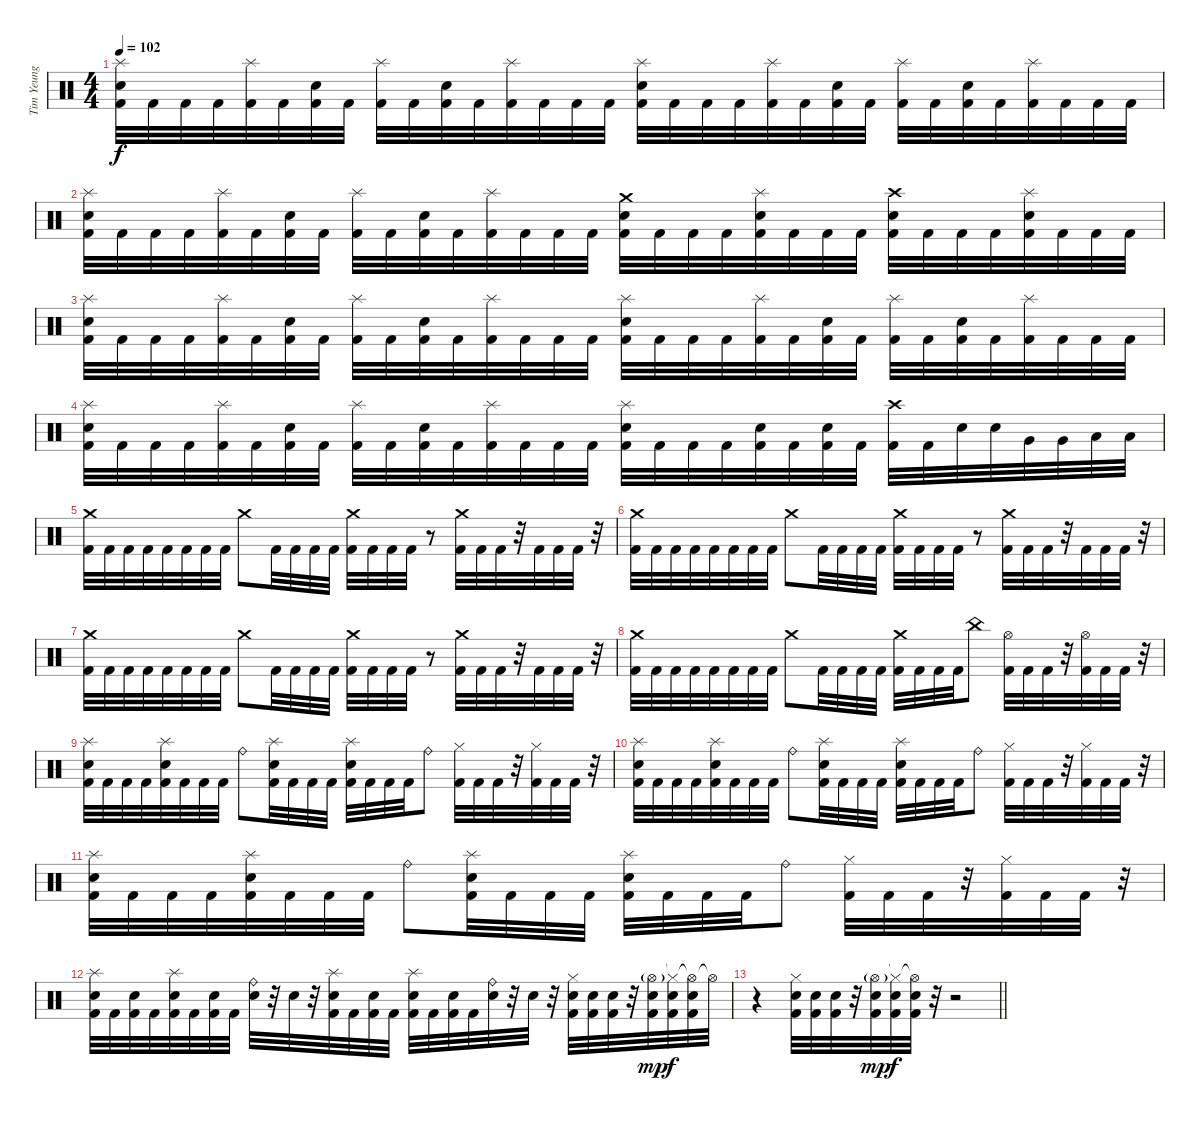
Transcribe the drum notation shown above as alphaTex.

\track ("Tim Yeung" "Tim Yeung") {instrument percussion}
\staff {score}
\articulation defaults
\ts (4 4)
\tempo 102
\clef neutral
\ks c
("Splash (hit)" "Electric Snare (hit)" "Kick (hit) 2").32{dy f} "Kick (hit) 2".32 "Kick (hit) 2".32 "Kick (hit) 2".32 ("Splash (hit)" "Kick (hit) 2").32 "Kick (hit) 2".32 ("Electric Snare (hit)" "Kick (hit) 2").32 "Kick (hit) 2".32 ("Splash (hit)" "Kick (hit) 2").32 "Kick (hit) 2".32 ("Electric Snare (hit)" "Kick (hit) 2").32 "Kick (hit) 2".32 ("Splash (hit)" "Kick (hit) 2").32 "Kick (hit) 2".32 "Kick (hit) 2".32 "Kick (hit) 2".32 ("Splash (hit)" "Electric Snare (hit)" "Kick (hit) 2").32 "Kick (hit) 2".32 "Kick (hit) 2".32 "Kick (hit) 2".32 ("Splash (hit)" "Kick (hit) 2").32 "Kick (hit) 2".32 ("Electric Snare (hit)" "Kick (hit) 2").32 "Kick (hit) 2".32 ("Splash (hit)" "Kick (hit) 2").32 "Kick (hit) 2".32 ("Electric Snare (hit)" "Kick (hit) 2").32 "Kick (hit) 2".32 ("Splash (hit)" "Kick (hit) 2").32 "Kick (hit) 2".32 "Kick (hit) 2".32 "Kick (hit) 2".32 |
("Splash (hit)" "Electric Snare (hit)" "Kick (hit) 2").32 "Kick (hit) 2".32 "Kick (hit) 2".32 "Kick (hit) 2".32 ("Splash (hit)" "Kick (hit) 2").32 "Kick (hit) 2".32 ("Electric Snare (hit)" "Kick (hit) 2").32 "Kick (hit) 2".32 ("Splash (hit)" "Kick (hit) 2").32 "Kick (hit) 2".32 ("Electric Snare (hit)" "Kick (hit) 2").32 "Kick (hit) 2".32 ("Splash (hit)" "Kick (hit) 2").32 "Kick (hit) 2".32 "Kick (hit) 2".32 "Kick (hit) 2".32 ("Crash medium (hit)" "Electric Snare (hit)" "Kick (hit) 2").32 "Kick (hit) 2".32 "Kick (hit) 2".32 "Kick (hit) 2".32 ("Splash (hit)" "Electric Snare (hit)" "Kick (hit) 2").32 "Kick (hit) 2".32 "Kick (hit) 2".32 "Kick (hit) 2".32 ("Crash high (hit)" "Electric Snare (hit)" "Kick (hit) 2").32 "Kick (hit) 2".32 "Kick (hit) 2".32 "Kick (hit) 2".32 ("Splash (hit)" "Electric Snare (hit)" "Kick (hit) 2").32 "Kick (hit) 2".32 "Kick (hit) 2".32 "Kick (hit) 2".32 |
("Splash (hit)" "Electric Snare (hit)" "Kick (hit) 2").32 "Kick (hit) 2".32 "Kick (hit) 2".32 "Kick (hit) 2".32 ("Splash (hit)" "Kick (hit) 2").32 "Kick (hit) 2".32 ("Electric Snare (hit)" "Kick (hit) 2").32 "Kick (hit) 2".32 ("Splash (hit)" "Kick (hit) 2").32 "Kick (hit) 2".32 ("Electric Snare (hit)" "Kick (hit) 2").32 "Kick (hit) 2".32 ("Splash (hit)" "Kick (hit) 2").32 "Kick (hit) 2".32 "Kick (hit) 2".32 "Kick (hit) 2".32 ("Splash (hit)" "Electric Snare (hit)" "Kick (hit) 2").32 "Kick (hit) 2".32 "Kick (hit) 2".32 "Kick (hit) 2".32 ("Splash (hit)" "Kick (hit) 2").32 "Kick (hit) 2".32 ("Electric Snare (hit)" "Kick (hit) 2").32 "Kick (hit) 2".32 ("Splash (hit)" "Kick (hit) 2").32 "Kick (hit) 2".32 ("Electric Snare (hit)" "Kick (hit) 2").32 "Kick (hit) 2".32 ("Splash (hit)" "Kick (hit) 2").32 "Kick (hit) 2".32 "Kick (hit) 2".32 "Kick (hit) 2".32 |
("Splash (hit)" "Electric Snare (hit)" "Kick (hit) 2").32 "Kick (hit) 2".32 "Kick (hit) 2".32 "Kick (hit) 2".32 ("Splash (hit)" "Kick (hit) 2").32 "Kick (hit) 2".32 ("Electric Snare (hit)" "Kick (hit) 2").32 "Kick (hit) 2".32 ("Splash (hit)" "Kick (hit) 2").32 "Kick (hit) 2".32 ("Electric Snare (hit)" "Kick (hit) 2").32 "Kick (hit) 2".32 ("Splash (hit)" "Kick (hit) 2").32 "Kick (hit) 2".32 "Kick (hit) 2".32 "Kick (hit) 2".32 ("Splash (hit)" "Electric Snare (hit)" "Kick (hit) 2").32 "Kick (hit) 2".32 "Kick (hit) 2".32 "Kick (hit) 2".32 ("Electric Snare (hit)" "Kick (hit) 2").32 "Kick (hit) 2".32 ("Electric Snare (hit)" "Kick (hit) 2").32 "Kick (hit) 2".32 ("Crash high (hit)" "Kick (hit) 2").32 "Kick (hit) 2".32 "Electric Snare (hit)".32 "Electric Snare (hit)".32 "Very Low Tom (hit)".32 "Very Low Tom (hit)".32 "Low Floor Tom (hit)".32 "Low Floor Tom (hit)".32 |
("Crash medium (hit)" "Kick (hit) 2").32 "Kick (hit) 2".32 "Kick (hit) 2".32 "Kick (hit) 2".32 "Kick (hit) 2".32 "Kick (hit) 2".32 "Kick (hit) 2".32 "Kick (hit) 2".32 "Crash medium (hit)".8 "Kick (hit) 2".32 "Kick (hit) 2".32 "Kick (hit) 2".32 "Kick (hit) 2".32 ("Crash medium (hit)" "Kick (hit) 2").32 "Kick (hit) 2".32 "Kick (hit) 2".32 "Kick (hit) 2".32 r.8 ("Crash medium (hit)" "Kick (hit) 2").32 "Kick (hit) 2".32 "Kick (hit) 2".32 r.32 "Kick (hit) 2".32 "Kick (hit) 2".32 "Kick (hit) 2".32 r.32 |
("Crash medium (hit)" "Kick (hit) 2").32 "Kick (hit) 2".32 "Kick (hit) 2".32 "Kick (hit) 2".32 "Kick (hit) 2".32 "Kick (hit) 2".32 "Kick (hit) 2".32 "Kick (hit) 2".32 "Crash medium (hit)".8 "Kick (hit) 2".32 "Kick (hit) 2".32 "Kick (hit) 2".32 "Kick (hit) 2".32 ("Crash medium (hit)" "Kick (hit) 2").32 "Kick (hit) 2".32 "Kick (hit) 2".32 "Kick (hit) 2".32 r.8 ("Crash medium (hit)" "Kick (hit) 2").32 "Kick (hit) 2".32 "Kick (hit) 2".32 r.32 "Kick (hit) 2".32 "Kick (hit) 2".32 "Kick (hit) 2".32 r.32 |
("Crash medium (hit)" "Kick (hit) 2").32 "Kick (hit) 2".32 "Kick (hit) 2".32 "Kick (hit) 2".32 "Kick (hit) 2".32 "Kick (hit) 2".32 "Kick (hit) 2".32 "Kick (hit) 2".32 "Crash medium (hit)".8 "Kick (hit) 2".32 "Kick (hit) 2".32 "Kick (hit) 2".32 "Kick (hit) 2".32 ("Crash medium (hit)" "Kick (hit) 2").32 "Kick (hit) 2".32 "Kick (hit) 2".32 "Kick (hit) 2".32 r.8 ("Crash medium (hit)" "Kick (hit) 2").32 "Kick (hit) 2".32 "Kick (hit) 2".32 r.32 "Kick (hit) 2".32 "Kick (hit) 2".32 "Kick (hit) 2".32 r.32 |
("Crash medium (hit)" "Kick (hit) 2").32 "Kick (hit) 2".32 "Kick (hit) 2".32 "Kick (hit) 2".32 "Kick (hit) 2".32 "Kick (hit) 2".32 "Kick (hit) 2".32 "Kick (hit) 2".32 "Crash medium (hit)".8 "Kick (hit) 2".32 "Kick (hit) 2".32 "Kick (hit) 2".32 "Kick (hit) 2".32 ("Crash medium (hit)" "Kick (hit) 2").32 "Kick (hit) 2".32 "Kick (hit) 2".32 "Kick (hit) 2".32 "China (hit)".8 ("Hi-Hat (open)" "Kick (hit) 2").32 "Kick (hit) 2".32 "Kick (hit) 2".32 r.32 ("Hi-Hat (open)" "Kick (hit) 2").32 "Kick (hit) 2".32 "Kick (hit) 2".32 r.32 |
("Splash (hit)" "Electric Snare (hit)" "Kick (hit) 2").32 "Kick (hit) 2".32 "Kick (hit) 2".32 "Kick (hit) 2".32 ("Splash (hit)" "Electric Snare (hit)" "Kick (hit) 2").32 "Kick (hit) 2".32 "Kick (hit) 2".32 "Kick (hit) 2".32 "Ride (bell)".8 ("Splash (hit)" "Electric Snare (hit)" "Kick (hit) 2").32 "Kick (hit) 2".32 "Kick (hit) 2".32 "Kick (hit) 2".32 ("Splash (hit)" "Electric Snare (hit)" "Kick (hit) 2").32 "Kick (hit) 2".32 "Kick (hit) 2".32 "Kick (hit) 2".32 "Ride (bell)".8 ("Hi-Hat (closed)" "Kick (hit) 2").32 "Kick (hit) 2".32 "Kick (hit) 2".32 r.32 ("Hi-Hat (closed)" "Kick (hit) 2").32 "Kick (hit) 2".32 "Kick (hit) 2".32 r.32 |
("Splash (hit)" "Electric Snare (hit)" "Kick (hit) 2").32 "Kick (hit) 2".32 "Kick (hit) 2".32 "Kick (hit) 2".32 ("Splash (hit)" "Electric Snare (hit)" "Kick (hit) 2").32 "Kick (hit) 2".32 "Kick (hit) 2".32 "Kick (hit) 2".32 "Ride (bell)".8 ("Splash (hit)" "Electric Snare (hit)" "Kick (hit) 2").32 "Kick (hit) 2".32 "Kick (hit) 2".32 "Kick (hit) 2".32 ("Splash (hit)" "Electric Snare (hit)" "Kick (hit) 2").32 "Kick (hit) 2".32 "Kick (hit) 2".32 "Kick (hit) 2".32 "Ride (bell)".8 ("Hi-Hat (closed)" "Kick (hit) 2").32 "Kick (hit) 2".32 "Kick (hit) 2".32 r.32 ("Hi-Hat (closed)" "Kick (hit) 2").32 "Kick (hit) 2".32 "Kick (hit) 2".32 r.32 |
("Splash (hit)" "Electric Snare (hit)" "Kick (hit) 2").32 "Kick (hit) 2".32 "Kick (hit) 2".32 "Kick (hit) 2".32 ("Splash (hit)" "Electric Snare (hit)" "Kick (hit) 2").32 "Kick (hit) 2".32 "Kick (hit) 2".32 "Kick (hit) 2".32 "Ride (bell)".8 ("Splash (hit)" "Electric Snare (hit)" "Kick (hit) 2").32 "Kick (hit) 2".32 "Kick (hit) 2".32 "Kick (hit) 2".32 ("Splash (hit)" "Electric Snare (hit)" "Kick (hit) 2").32 "Kick (hit) 2".32 "Kick (hit) 2".32 "Kick (hit) 2".32 "Ride (bell)".8 ("Hi-Hat (closed)" "Kick (hit) 2").32 "Kick (hit) 2".32 "Kick (hit) 2".32 r.32 ("Hi-Hat (closed)" "Kick (hit) 2").32 "Kick (hit) 2".32 "Kick (hit) 2".32 r.32 |
("Splash (hit)" "Electric Snare (hit)" "Kick (hit) 2").32 "Kick (hit) 2".32 ("Electric Snare (hit)" "Kick (hit) 2").32 "Kick (hit) 2".32 ("Splash (hit)" "Electric Snare (hit)" "Kick (hit) 2").32 "Kick (hit) 2".32 ("Electric Snare (hit)" "Kick (hit) 2").32 "Kick (hit) 2".32 ("Ride (bell)" "Electric Snare (hit)").32 r.32 "Electric Snare (hit)".32 r.32 ("Splash (hit)" "Electric Snare (hit)" "Kick (hit) 2").32 "Kick (hit) 2".32 ("Electric Snare (hit)" "Kick (hit) 2").32 "Kick (hit) 2".32 ("Splash (hit)" "Electric Snare (hit)" "Kick (hit) 2").32 "Kick (hit) 2".32 ("Electric Snare (hit)" "Kick (hit) 2").32 "Kick (hit) 2".32 ("Ride (bell)" "Electric Snare (hit)").32 r.32 "Electric Snare (hit)".32 r.32 ("Hi-Hat (closed)" "Electric Snare (hit)" "Kick (hit) 2").32 ("Electric Snare (hit)" "Kick (hit) 2").32 ("Electric Snare (hit)" "Kick (hit) 2").32 r.32 ("Hi-Hat (open)"{g} "Electric Snare (hit)" "Kick (hit) 2").32{dy mp} ("Hi-Hat (closed)"{t} "Electric Snare (hit)" "Kick (hit) 2").32{dy f} ("Hi-Hat (open)"{t} "Electric Snare (hit)" "Kick (hit) 2").32 "Hi-Hat (open)"{t}.32 |
\barLineRight lightlight
r.4 ("Hi-Hat (closed)" "Electric Snare (hit)" "Kick (hit) 2").32 ("Electric Snare (hit)" "Kick (hit) 2").32 ("Electric Snare (hit)" "Kick (hit) 2").32 r.32 ("Hi-Hat (open)"{g} "Electric Snare (hit)" "Kick (hit) 2").32{dy mp} ("Hi-Hat (closed)"{t} "Electric Snare (hit)" "Kick (hit) 2").32{dy f} ("Hi-Hat (open)"{t} "Electric Snare (hit)" "Kick (hit) 2").32 r.32 r.2
